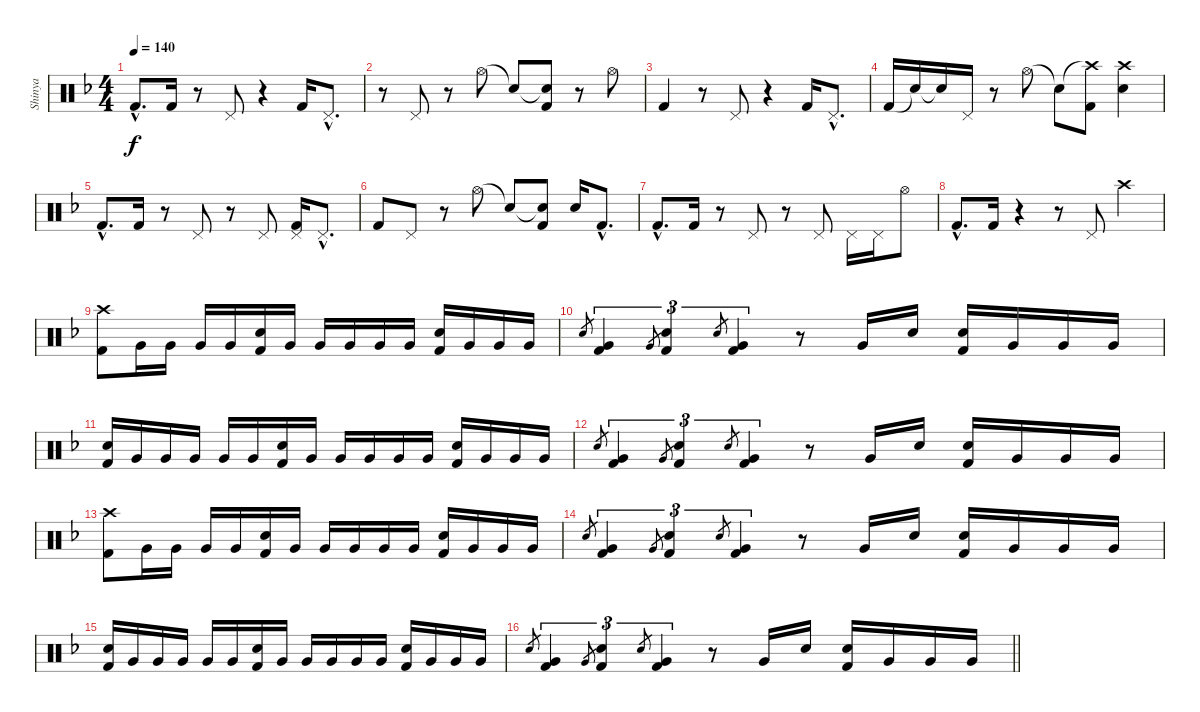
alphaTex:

\track ("Shinya" "Shinya") {instrument percussion}
\staff {score}
\articulation defaults
\ts (4 4)
\tempo 140
\clef neutral
\ks dminor "Kick (hit) 2"{hac}.8{d dy f} "Kick (hit) 2".16
r.8 "Pedal Hi-Hat (hit)".8 r.4 "Kick (hit) 2".16 "Pedal Hi-Hat (hit)"{hac}.8{d} |
r.8 "Pedal Hi-Hat (hit)".8 r.8 "Hi-Hat (open)".8 "Snare (hit)"{t}.8 ("Snare (hit)"{t} "Kick (hit) 2").8 r.8 "Hi-Hat (open)".8 |
"Kick (hit) 2".4 r.8 "Pedal Hi-Hat (hit)".8 r.4 "Kick (hit) 2".16 "Pedal Hi-Hat (hit)"{hac}.8{d} |
"Kick (hit) 2".16 "Snare (hit)"{t}.16 "Snare (hit)"{t}.16 "Pedal Hi-Hat (hit)".16 r.8 "Hi-Hat (open)".8 "Snare (hit)"{t}.8 ("Crash high (hit)"{t} "Kick (hit) 2").8 ("Crash high (hit)" "Electric Snare (hit)").4 |
"Kick (hit) 2"{hac}.8{d} "Kick (hit) 2".16 r.8 "Pedal Hi-Hat (hit)".8 r.8 "Pedal Hi-Hat (hit)".8 ("Pedal Hi-Hat (hit)" "Kick (hit) 2").16 "Pedal Hi-Hat (hit)"{hac}.8{d} |
"Kick (hit) 2".8 "Pedal Hi-Hat (hit)".8 r.8 "Hi-Hat (open)".8 "Snare (hit)"{t}.8 ("Snare (hit)"{t} "Kick (hit) 2").8 "Electric Snare (hit)".16 "Kick (hit) 2"{hac}.8{d} |
"Kick (hit) 2"{hac}.8{d} "Kick (hit) 2".16 r.8 "Pedal Hi-Hat (hit)".8 r.8 "Pedal Hi-Hat (hit)".8 "Pedal Hi-Hat (hit)".16 "Pedal Hi-Hat (hit)".16 "Hi-Hat (open)".8 |
"Kick (hit) 2"{hac}.8{d} "Kick (hit) 2".16 r.4 r.8 "Pedal Hi-Hat (hit)".8 "Crash high (hit)".4 |
("Crash high (hit)" "Kick (hit) 2").8 "Very Low Tom (hit)".16 "Very Low Tom (hit)".16 "Very Low Tom (hit)".16 "Very Low Tom (hit)".16 ("Electric Snare (hit)" "Kick (hit) 2").16 "Very Low Tom (hit)".16 "Very Low Tom (hit)".16 "Very Low Tom (hit)".16 "Very Low Tom (hit)".16 "Very Low Tom (hit)".16 ("Electric Snare (hit)" "Kick (hit) 2").16 "Very Low Tom (hit)".16 "Very Low Tom (hit)".16 "Very Low Tom (hit)".16 |
"Electric Snare (hit)".8{gr} ("Very Low Tom (hit)" "Kick (hit) 2").4{tu (3 2)} "Very Low Tom (hit)".8{gr} ("Electric Snare (hit)" "Kick (hit) 2").4{tu (3 2)} "Electric Snare (hit)".8{gr} ("Very Low Tom (hit)" "Kick (hit) 2").4{tu (3 2)} r.8 "Very Low Tom (hit)".16 "Electric Snare (hit)".16 ("Electric Snare (hit)" "Kick (hit) 2").16 "Very Low Tom (hit)".16 "Very Low Tom (hit)".16 "Very Low Tom (hit)".16 |
("Electric Snare (hit)" "Kick (hit) 2").16 "Very Low Tom (hit)".16 "Very Low Tom (hit)".16 "Very Low Tom (hit)".16 "Very Low Tom (hit)".16 "Very Low Tom (hit)".16 ("Electric Snare (hit)" "Kick (hit) 2").16 "Very Low Tom (hit)".16 "Very Low Tom (hit)".16 "Very Low Tom (hit)".16 "Very Low Tom (hit)".16 "Very Low Tom (hit)".16 ("Electric Snare (hit)" "Kick (hit) 2").16 "Very Low Tom (hit)".16 "Very Low Tom (hit)".16 "Very Low Tom (hit)".16 |
"Electric Snare (hit)".8{gr} ("Very Low Tom (hit)" "Kick (hit) 2").4{tu (3 2)} "Very Low Tom (hit)".8{gr} ("Electric Snare (hit)" "Kick (hit) 2").4{tu (3 2)} "Electric Snare (hit)".8{gr} ("Very Low Tom (hit)" "Kick (hit) 2").4{tu (3 2)} r.8 "Very Low Tom (hit)".16 "Electric Snare (hit)".16 ("Electric Snare (hit)" "Kick (hit) 2").16 "Very Low Tom (hit)".16 "Very Low Tom (hit)".16 "Very Low Tom (hit)".16 |
("Crash high (hit)" "Kick (hit) 2").8 "Very Low Tom (hit)".16 "Very Low Tom (hit)".16 "Very Low Tom (hit)".16 "Very Low Tom (hit)".16 ("Electric Snare (hit)" "Kick (hit) 2").16 "Very Low Tom (hit)".16 "Very Low Tom (hit)".16 "Very Low Tom (hit)".16 "Very Low Tom (hit)".16 "Very Low Tom (hit)".16 ("Electric Snare (hit)" "Kick (hit) 2").16 "Very Low Tom (hit)".16 "Very Low Tom (hit)".16 "Very Low Tom (hit)".16 |
"Electric Snare (hit)".8{gr} ("Very Low Tom (hit)" "Kick (hit) 2").4{tu (3 2)} "Very Low Tom (hit)".8{gr} ("Electric Snare (hit)" "Kick (hit) 2").4{tu (3 2)} "Electric Snare (hit)".8{gr} ("Very Low Tom (hit)" "Kick (hit) 2").4{tu (3 2)} r.8 "Very Low Tom (hit)".16 "Electric Snare (hit)".16 ("Electric Snare (hit)" "Kick (hit) 2").16 "Very Low Tom (hit)".16 "Very Low Tom (hit)".16 "Very Low Tom (hit)".16 |
("Electric Snare (hit)" "Kick (hit) 2").16 "Very Low Tom (hit)".16 "Very Low Tom (hit)".16 "Very Low Tom (hit)".16 "Very Low Tom (hit)".16 "Very Low Tom (hit)".16 ("Electric Snare (hit)" "Kick (hit) 2").16 "Very Low Tom (hit)".16 "Very Low Tom (hit)".16 "Very Low Tom (hit)".16 "Very Low Tom (hit)".16 "Very Low Tom (hit)".16 ("Electric Snare (hit)" "Kick (hit) 2").16 "Very Low Tom (hit)".16 "Very Low Tom (hit)".16 "Very Low Tom (hit)".16 |
\barLineRight lightlight "Electric Snare (hit)".8{gr}
("Very Low Tom (hit)" "Kick (hit) 2").4{tu (3 2)} "Very Low Tom (hit)".8{gr} ("Electric Snare (hit)" "Kick (hit) 2").4{tu (3 2)} "Electric Snare (hit)".8{gr} ("Very Low Tom (hit)" "Kick (hit) 2").4{tu (3 2)} r.8 "Very Low Tom (hit)".16 "Electric Snare (hit)".16 ("Electric Snare (hit)" "Kick (hit) 2").16 "Very Low Tom (hit)".16 "Very Low Tom (hit)".16 "Very Low Tom (hit)".16
